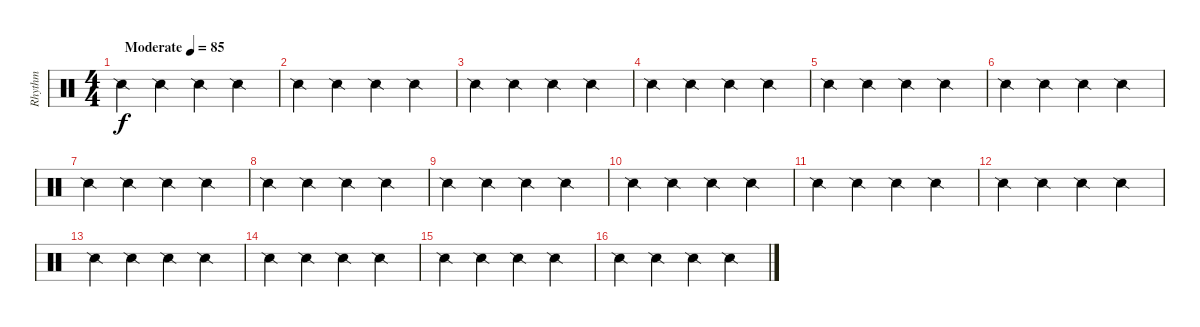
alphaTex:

\track ("Rhythm" "Rhythm") {instrument percussion}
\staff {score}
\articulation defaults
\ts (4 4)
\tempo (85 "Moderate")
\clef neutral
\ks c "Snare (side stick) 2".4{dy f} "Snare (side stick) 2".4 "Snare (side stick) 2".4 "Snare (side stick) 2".4
|
"Snare (side stick) 2".4 "Snare (side stick) 2".4 "Snare (side stick) 2".4 "Snare (side stick) 2".4 |
"Snare (side stick) 2".4 "Snare (side stick) 2".4 "Snare (side stick) 2".4 "Snare (side stick) 2".4 |
"Snare (side stick) 2".4 "Snare (side stick) 2".4 "Snare (side stick) 2".4 "Snare (side stick) 2".4 |
"Snare (side stick) 2".4 "Snare (side stick) 2".4 "Snare (side stick) 2".4 "Snare (side stick) 2".4 |
"Snare (side stick) 2".4 "Snare (side stick) 2".4 "Snare (side stick) 2".4 "Snare (side stick) 2".4 |
"Snare (side stick) 2".4 "Snare (side stick) 2".4 "Snare (side stick) 2".4 "Snare (side stick) 2".4 |
"Snare (side stick) 2".4 "Snare (side stick) 2".4 "Snare (side stick) 2".4 "Snare (side stick) 2".4 |
"Snare (side stick) 2".4 "Snare (side stick) 2".4 "Snare (side stick) 2".4 "Snare (side stick) 2".4 |
"Snare (side stick) 2".4 "Snare (side stick) 2".4 "Snare (side stick) 2".4 "Snare (side stick) 2".4 |
"Snare (side stick) 2".4 "Snare (side stick) 2".4 "Snare (side stick) 2".4 "Snare (side stick) 2".4 |
"Snare (side stick) 2".4 "Snare (side stick) 2".4 "Snare (side stick) 2".4 "Snare (side stick) 2".4 |
"Snare (side stick) 2".4 "Snare (side stick) 2".4 "Snare (side stick) 2".4 "Snare (side stick) 2".4 |
"Snare (side stick) 2".4 "Snare (side stick) 2".4 "Snare (side stick) 2".4 "Snare (side stick) 2".4 |
"Snare (side stick) 2".4 "Snare (side stick) 2".4 "Snare (side stick) 2".4 "Snare (side stick) 2".4 |
"Snare (side stick) 2".4 "Snare (side stick) 2".4 "Snare (side stick) 2".4 "Snare (side stick) 2".4
